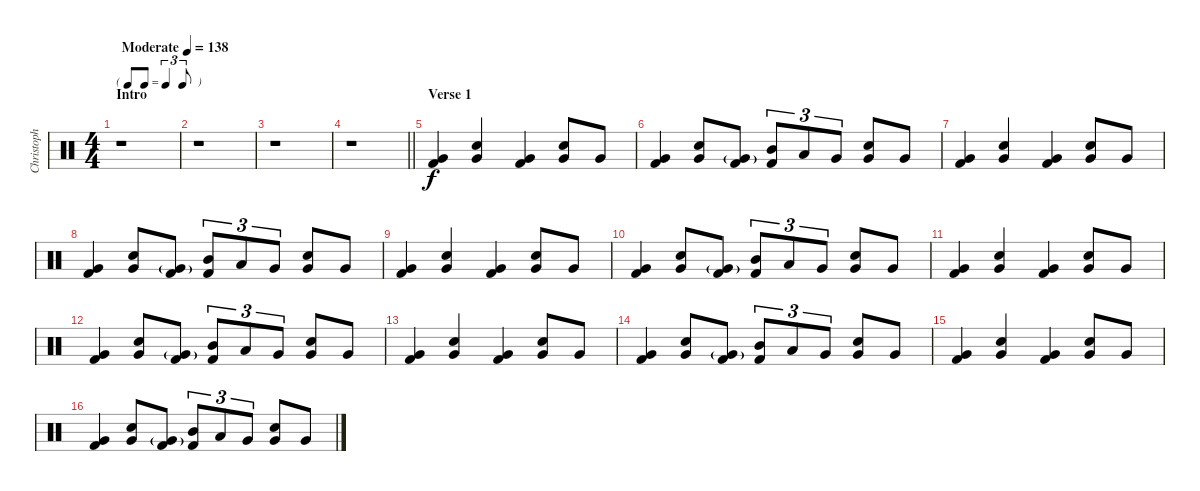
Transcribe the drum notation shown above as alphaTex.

\track ("Christoph Schneider" "Christoph ") {instrument percussion}
\staff {score}
\articulation defaults
\ts (4 4)
\tf triplet8th
\section ("" "Intro")
\tempo (138 "Moderate")
\clef neutral
\ks c
r.1{dy f} |
r.1 |
r.1 |
\barLineRight lightlight
r.1 |
\section ("" "Verse 1")
("Very Low Tom (hit)" "Kick (hit) 2").4 ("Very Low Tom (hit)" "Electric Snare (hit)").4 ("Very Low Tom (hit)" "Kick (hit) 2").4 ("Very Low Tom (hit)" "Electric Snare (hit)").8 "Very Low Tom (hit)".8 |
("Very Low Tom (hit)" "Kick (hit) 2").4 ("Very Low Tom (hit)" "Electric Snare (hit)").8 ("Very Low Tom (hit)"{g} "Kick (hit) 2").8 ("Mid Tom (hit)" "Kick (hit) 2").8{tu (3 2)} "Low Tom (hit)".8{tu (3 2)} "Very Low Tom (hit)".8{tu (3 2)} ("Very Low Tom (hit)" "Electric Snare (hit)").8 "Very Low Tom (hit)".8 |
("Very Low Tom (hit)" "Kick (hit) 2").4 ("Very Low Tom (hit)" "Electric Snare (hit)").4 ("Very Low Tom (hit)" "Kick (hit) 2").4 ("Very Low Tom (hit)" "Electric Snare (hit)").8 "Very Low Tom (hit)".8 |
("Very Low Tom (hit)" "Kick (hit) 2").4 ("Very Low Tom (hit)" "Electric Snare (hit)").8 ("Very Low Tom (hit)"{g} "Kick (hit) 2").8 ("Mid Tom (hit)" "Kick (hit) 2").8{tu (3 2)} "Low Tom (hit)".8{tu (3 2)} "Very Low Tom (hit)".8{tu (3 2)} ("Very Low Tom (hit)" "Electric Snare (hit)").8 "Very Low Tom (hit)".8 |
("Very Low Tom (hit)" "Kick (hit) 2").4 ("Very Low Tom (hit)" "Electric Snare (hit)").4 ("Very Low Tom (hit)" "Kick (hit) 2").4 ("Very Low Tom (hit)" "Electric Snare (hit)").8 "Very Low Tom (hit)".8 |
("Very Low Tom (hit)" "Kick (hit) 2").4 ("Very Low Tom (hit)" "Electric Snare (hit)").8 ("Very Low Tom (hit)"{g} "Kick (hit) 2").8 ("Mid Tom (hit)" "Kick (hit) 2").8{tu (3 2)} "Low Tom (hit)".8{tu (3 2)} "Very Low Tom (hit)".8{tu (3 2)} ("Very Low Tom (hit)" "Electric Snare (hit)").8 "Very Low Tom (hit)".8 |
("Very Low Tom (hit)" "Kick (hit) 2").4 ("Very Low Tom (hit)" "Electric Snare (hit)").4 ("Very Low Tom (hit)" "Kick (hit) 2").4 ("Very Low Tom (hit)" "Electric Snare (hit)").8 "Very Low Tom (hit)".8 |
("Very Low Tom (hit)" "Kick (hit) 2").4 ("Very Low Tom (hit)" "Electric Snare (hit)").8 ("Very Low Tom (hit)"{g} "Kick (hit) 2").8 ("Mid Tom (hit)" "Kick (hit) 2").8{tu (3 2)} "Low Tom (hit)".8{tu (3 2)} "Very Low Tom (hit)".8{tu (3 2)} ("Very Low Tom (hit)" "Electric Snare (hit)").8 "Very Low Tom (hit)".8 |
("Very Low Tom (hit)" "Kick (hit) 2").4 ("Very Low Tom (hit)" "Electric Snare (hit)").4 ("Very Low Tom (hit)" "Kick (hit) 2").4 ("Very Low Tom (hit)" "Electric Snare (hit)").8 "Very Low Tom (hit)".8 |
("Very Low Tom (hit)" "Kick (hit) 2").4 ("Very Low Tom (hit)" "Electric Snare (hit)").8 ("Very Low Tom (hit)"{g} "Kick (hit) 2").8 ("Mid Tom (hit)" "Kick (hit) 2").8{tu (3 2)} "Low Tom (hit)".8{tu (3 2)} "Very Low Tom (hit)".8{tu (3 2)} ("Very Low Tom (hit)" "Electric Snare (hit)").8 "Very Low Tom (hit)".8 |
("Very Low Tom (hit)" "Kick (hit) 2").4 ("Very Low Tom (hit)" "Electric Snare (hit)").4 ("Very Low Tom (hit)" "Kick (hit) 2").4 ("Very Low Tom (hit)" "Electric Snare (hit)").8 "Very Low Tom (hit)".8 |
("Very Low Tom (hit)" "Kick (hit) 2").4 ("Very Low Tom (hit)" "Electric Snare (hit)").8 ("Very Low Tom (hit)"{g} "Kick (hit) 2").8 ("Mid Tom (hit)" "Kick (hit) 2").8{tu (3 2)} "Low Tom (hit)".8{tu (3 2)} "Very Low Tom (hit)".8{tu (3 2)} ("Very Low Tom (hit)" "Electric Snare (hit)").8 "Very Low Tom (hit)".8
